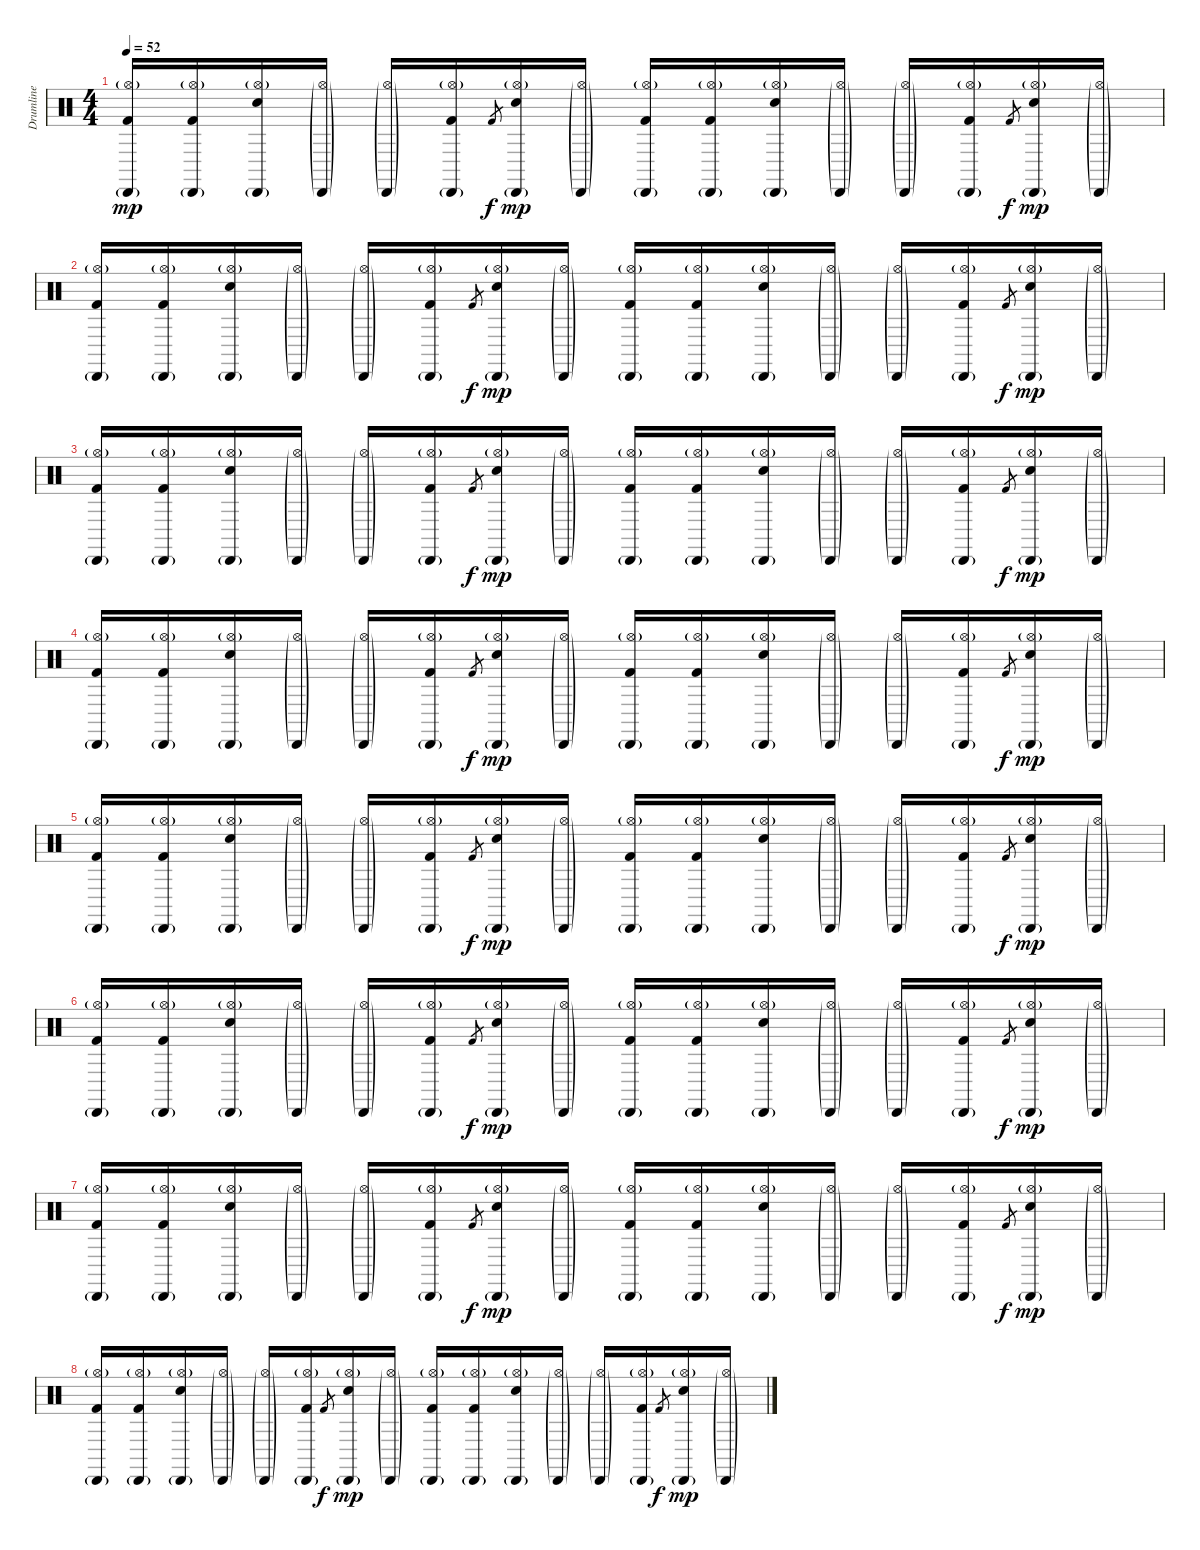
\track ("Drumline" "Drumline") {instrument percussion}
\staff {score}
\articulation defaults
\ts (4 4)
\tempo 52
\clef neutral
\ks c
("Hi-Hat (open)"{g} "Cabasa (hit)"{g} "Kick (hit) 2").16{dy mp} ("Hi-Hat (open)"{g} "Cabasa (hit)"{g} "Kick (hit) 2").16 ("Hi-Hat (open)"{g} "Cabasa (hit)"{g} "Snare (hit) 2").16 ("Hi-Hat (open)"{g} "Cabasa (hit)"{g}).16 ("Hi-Hat (open)"{g} "Cabasa (hit)"{g}).16 ("Hi-Hat (open)"{g} "Cabasa (hit)"{g} "Kick (hit) 2").16 "Kick (hit) 2".8{gr dy f} ("Hi-Hat (open)"{g} "Cabasa (hit)"{g} "Snare (hit) 2").16{dy mp} ("Hi-Hat (open)"{g} "Cabasa (hit)"{g}).16 ("Hi-Hat (open)"{g} "Cabasa (hit)"{g} "Kick (hit) 2").16 ("Hi-Hat (open)"{g} "Cabasa (hit)"{g} "Kick (hit) 2").16 ("Hi-Hat (open)"{g} "Cabasa (hit)"{g} "Snare (hit) 2").16 ("Hi-Hat (open)"{g} "Cabasa (hit)"{g}).16 ("Hi-Hat (open)"{g} "Cabasa (hit)"{g}).16 ("Hi-Hat (open)"{g} "Cabasa (hit)"{g} "Kick (hit) 2").16 "Kick (hit) 2".8{gr dy f} ("Hi-Hat (open)"{g} "Cabasa (hit)"{g} "Snare (hit) 2").16{dy mp} ("Hi-Hat (open)"{g} "Cabasa (hit)"{g}).16 |
("Hi-Hat (open)"{g} "Cabasa (hit)"{g} "Kick (hit) 2").16 ("Hi-Hat (open)"{g} "Cabasa (hit)"{g} "Kick (hit) 2").16 ("Hi-Hat (open)"{g} "Cabasa (hit)"{g} "Snare (hit) 2").16 ("Hi-Hat (open)"{g} "Cabasa (hit)"{g}).16 ("Hi-Hat (open)"{g} "Cabasa (hit)"{g}).16 ("Hi-Hat (open)"{g} "Cabasa (hit)"{g} "Kick (hit) 2").16 "Kick (hit) 2".8{gr dy f} ("Hi-Hat (open)"{g} "Cabasa (hit)"{g} "Snare (hit) 2").16{dy mp} ("Hi-Hat (open)"{g} "Cabasa (hit)"{g}).16 ("Hi-Hat (open)"{g} "Cabasa (hit)"{g} "Kick (hit) 2").16 ("Hi-Hat (open)"{g} "Cabasa (hit)"{g} "Kick (hit) 2").16 ("Hi-Hat (open)"{g} "Cabasa (hit)"{g} "Snare (hit) 2").16 ("Hi-Hat (open)"{g} "Cabasa (hit)"{g}).16 ("Hi-Hat (open)"{g} "Cabasa (hit)"{g}).16 ("Hi-Hat (open)"{g} "Cabasa (hit)"{g} "Kick (hit) 2").16 "Kick (hit) 2".8{gr dy f} ("Hi-Hat (open)"{g} "Cabasa (hit)"{g} "Snare (hit) 2").16{dy mp} ("Hi-Hat (open)"{g} "Cabasa (hit)"{g}).16 |
("Hi-Hat (open)"{g} "Cabasa (hit)"{g} "Kick (hit) 2").16 ("Hi-Hat (open)"{g} "Cabasa (hit)"{g} "Kick (hit) 2").16 ("Hi-Hat (open)"{g} "Cabasa (hit)"{g} "Snare (hit) 2").16 ("Hi-Hat (open)"{g} "Cabasa (hit)"{g}).16 ("Hi-Hat (open)"{g} "Cabasa (hit)"{g}).16 ("Hi-Hat (open)"{g} "Cabasa (hit)"{g} "Kick (hit) 2").16 "Kick (hit) 2".8{gr dy f} ("Hi-Hat (open)"{g} "Cabasa (hit)"{g} "Snare (hit) 2").16{dy mp} ("Hi-Hat (open)"{g} "Cabasa (hit)"{g}).16 ("Hi-Hat (open)"{g} "Cabasa (hit)"{g} "Kick (hit) 2").16 ("Hi-Hat (open)"{g} "Cabasa (hit)"{g} "Kick (hit) 2").16 ("Hi-Hat (open)"{g} "Cabasa (hit)"{g} "Snare (hit) 2").16 ("Hi-Hat (open)"{g} "Cabasa (hit)"{g}).16 ("Hi-Hat (open)"{g} "Cabasa (hit)"{g}).16 ("Hi-Hat (open)"{g} "Cabasa (hit)"{g} "Kick (hit) 2").16 "Kick (hit) 2".8{gr dy f} ("Hi-Hat (open)"{g} "Cabasa (hit)"{g} "Snare (hit) 2").16{dy mp} ("Hi-Hat (open)"{g} "Cabasa (hit)"{g}).16 |
("Hi-Hat (open)"{g} "Cabasa (hit)"{g} "Kick (hit) 2").16 ("Hi-Hat (open)"{g} "Cabasa (hit)"{g} "Kick (hit) 2").16 ("Hi-Hat (open)"{g} "Cabasa (hit)"{g} "Snare (hit) 2").16 ("Hi-Hat (open)"{g} "Cabasa (hit)"{g}).16 ("Hi-Hat (open)"{g} "Cabasa (hit)"{g}).16 ("Hi-Hat (open)"{g} "Cabasa (hit)"{g} "Kick (hit) 2").16 "Kick (hit) 2".8{gr dy f} ("Hi-Hat (open)"{g} "Cabasa (hit)"{g} "Snare (hit) 2").16{dy mp} ("Hi-Hat (open)"{g} "Cabasa (hit)"{g}).16 ("Hi-Hat (open)"{g} "Cabasa (hit)"{g} "Kick (hit) 2").16 ("Hi-Hat (open)"{g} "Cabasa (hit)"{g} "Kick (hit) 2").16 ("Hi-Hat (open)"{g} "Cabasa (hit)"{g} "Snare (hit) 2").16 ("Hi-Hat (open)"{g} "Cabasa (hit)"{g}).16 ("Hi-Hat (open)"{g} "Cabasa (hit)"{g}).16 ("Hi-Hat (open)"{g} "Cabasa (hit)"{g} "Kick (hit) 2").16 "Kick (hit) 2".8{gr dy f} ("Hi-Hat (open)"{g} "Cabasa (hit)"{g} "Snare (hit) 2").16{dy mp} ("Hi-Hat (open)"{g} "Cabasa (hit)"{g}).16 |
("Hi-Hat (open)"{g} "Cabasa (hit)"{g} "Kick (hit) 2").16 ("Hi-Hat (open)"{g} "Cabasa (hit)"{g} "Kick (hit) 2").16 ("Hi-Hat (open)"{g} "Cabasa (hit)"{g} "Snare (hit) 2").16 ("Hi-Hat (open)"{g} "Cabasa (hit)"{g}).16 ("Hi-Hat (open)"{g} "Cabasa (hit)"{g}).16 ("Hi-Hat (open)"{g} "Cabasa (hit)"{g} "Kick (hit) 2").16 "Kick (hit) 2".8{gr dy f} ("Hi-Hat (open)"{g} "Cabasa (hit)"{g} "Snare (hit) 2").16{dy mp} ("Hi-Hat (open)"{g} "Cabasa (hit)"{g}).16 ("Hi-Hat (open)"{g} "Cabasa (hit)"{g} "Kick (hit) 2").16 ("Hi-Hat (open)"{g} "Cabasa (hit)"{g} "Kick (hit) 2").16 ("Hi-Hat (open)"{g} "Cabasa (hit)"{g} "Snare (hit) 2").16 ("Hi-Hat (open)"{g} "Cabasa (hit)"{g}).16 ("Hi-Hat (open)"{g} "Cabasa (hit)"{g}).16 ("Hi-Hat (open)"{g} "Cabasa (hit)"{g} "Kick (hit) 2").16 "Kick (hit) 2".8{gr dy f} ("Hi-Hat (open)"{g} "Cabasa (hit)"{g} "Snare (hit) 2").16{dy mp} ("Hi-Hat (open)"{g} "Cabasa (hit)"{g}).16 |
("Hi-Hat (open)"{g} "Cabasa (hit)"{g} "Kick (hit) 2").16 ("Hi-Hat (open)"{g} "Cabasa (hit)"{g} "Kick (hit) 2").16 ("Hi-Hat (open)"{g} "Cabasa (hit)"{g} "Snare (hit) 2").16 ("Hi-Hat (open)"{g} "Cabasa (hit)"{g}).16 ("Hi-Hat (open)"{g} "Cabasa (hit)"{g}).16 ("Hi-Hat (open)"{g} "Cabasa (hit)"{g} "Kick (hit) 2").16 "Kick (hit) 2".8{gr dy f} ("Hi-Hat (open)"{g} "Cabasa (hit)"{g} "Snare (hit) 2").16{dy mp} ("Hi-Hat (open)"{g} "Cabasa (hit)"{g}).16 ("Hi-Hat (open)"{g} "Cabasa (hit)"{g} "Kick (hit) 2").16 ("Hi-Hat (open)"{g} "Cabasa (hit)"{g} "Kick (hit) 2").16 ("Hi-Hat (open)"{g} "Cabasa (hit)"{g} "Snare (hit) 2").16 ("Hi-Hat (open)"{g} "Cabasa (hit)"{g}).16 ("Hi-Hat (open)"{g} "Cabasa (hit)"{g}).16 ("Hi-Hat (open)"{g} "Cabasa (hit)"{g} "Kick (hit) 2").16 "Kick (hit) 2".8{gr dy f} ("Hi-Hat (open)"{g} "Cabasa (hit)"{g} "Snare (hit) 2").16{dy mp} ("Hi-Hat (open)"{g} "Cabasa (hit)"{g}).16 |
("Hi-Hat (open)"{g} "Cabasa (hit)"{g} "Kick (hit) 2").16 ("Hi-Hat (open)"{g} "Cabasa (hit)"{g} "Kick (hit) 2").16 ("Hi-Hat (open)"{g} "Cabasa (hit)"{g} "Snare (hit) 2").16 ("Hi-Hat (open)"{g} "Cabasa (hit)"{g}).16 ("Hi-Hat (open)"{g} "Cabasa (hit)"{g}).16 ("Hi-Hat (open)"{g} "Cabasa (hit)"{g} "Kick (hit) 2").16 "Kick (hit) 2".8{gr dy f} ("Hi-Hat (open)"{g} "Cabasa (hit)"{g} "Snare (hit) 2").16{dy mp} ("Hi-Hat (open)"{g} "Cabasa (hit)"{g}).16 ("Hi-Hat (open)"{g} "Cabasa (hit)"{g} "Kick (hit) 2").16 ("Hi-Hat (open)"{g} "Cabasa (hit)"{g} "Kick (hit) 2").16 ("Hi-Hat (open)"{g} "Cabasa (hit)"{g} "Snare (hit) 2").16 ("Hi-Hat (open)"{g} "Cabasa (hit)"{g}).16 ("Hi-Hat (open)"{g} "Cabasa (hit)"{g}).16 ("Hi-Hat (open)"{g} "Cabasa (hit)"{g} "Kick (hit) 2").16 "Kick (hit) 2".8{gr dy f} ("Hi-Hat (open)"{g} "Cabasa (hit)"{g} "Snare (hit) 2").16{dy mp} ("Hi-Hat (open)"{g} "Cabasa (hit)"{g}).16 |
("Hi-Hat (open)"{g} "Cabasa (hit)"{g} "Kick (hit) 2").16 ("Hi-Hat (open)"{g} "Cabasa (hit)"{g} "Kick (hit) 2").16 ("Hi-Hat (open)"{g} "Cabasa (hit)"{g} "Snare (hit) 2").16 ("Hi-Hat (open)"{g} "Cabasa (hit)"{g}).16 ("Hi-Hat (open)"{g} "Cabasa (hit)"{g}).16 ("Hi-Hat (open)"{g} "Cabasa (hit)"{g} "Kick (hit) 2").16 "Kick (hit) 2".8{gr dy f} ("Hi-Hat (open)"{g} "Cabasa (hit)"{g} "Snare (hit) 2").16{dy mp} ("Hi-Hat (open)"{g} "Cabasa (hit)"{g}).16 ("Hi-Hat (open)"{g} "Cabasa (hit)"{g} "Kick (hit) 2").16 ("Hi-Hat (open)"{g} "Cabasa (hit)"{g} "Kick (hit) 2").16 ("Hi-Hat (open)"{g} "Cabasa (hit)"{g} "Snare (hit) 2").16 ("Hi-Hat (open)"{g} "Cabasa (hit)"{g}).16 ("Hi-Hat (open)"{g} "Cabasa (hit)"{g}).16 ("Hi-Hat (open)"{g} "Cabasa (hit)"{g} "Kick (hit) 2").16 "Kick (hit) 2".8{gr dy f} ("Hi-Hat (open)"{g} "Cabasa (hit)"{g} "Snare (hit) 2").16{dy mp} ("Hi-Hat (open)"{g} "Cabasa (hit)"{g}).16
